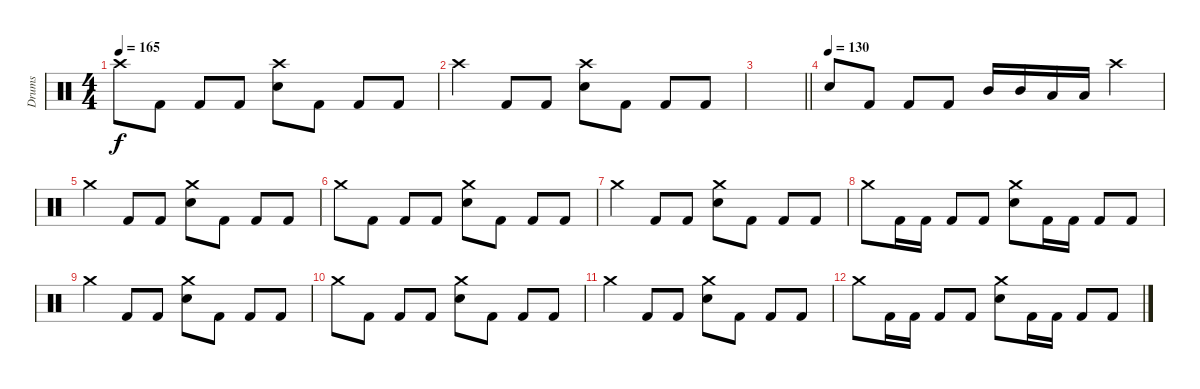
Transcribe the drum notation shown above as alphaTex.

\track ("Drums" "Drums") {instrument percussion}
\staff {score}
\articulation defaults
\ts (4 4)
\tempo 165
\clef neutral
\ks c "Crash high (hit)".8{dy f} "Kick (hit) 2".8 "Kick (hit) 2".8 "Kick (hit) 2".8
("Crash high (hit)" "Snare (hit) 2").8 "Kick (hit) 2".8 "Kick (hit) 2".8 "Kick (hit) 2".8 |
"Crash high (hit)".4 "Kick (hit) 2".8 "Kick (hit) 2".8 ("Crash high (hit)" "Snare (hit) 2").8 "Kick (hit) 2".8 "Kick (hit) 2".8 "Kick (hit) 2".8 |
\barLineRight lightlight
|
\tempo (130)
"Snare (hit) 2".8 "Kick (hit) 2".8 "Kick (hit) 2".8 "Kick (hit) 2".8 "Mid Tom (hit)".16 "Mid Tom (hit)".16 "Low Tom (hit)".16 "Low Tom (hit)".16 "Crash high (hit)".4 |
"Crash medium (hit)".4 "Kick (hit) 2".8 "Kick (hit) 2".8 ("Crash medium (hit)" "Snare (hit) 2").8 "Kick (hit) 2".8 "Kick (hit) 2".8 "Kick (hit) 2".8 |
"Crash medium (hit)".8 "Kick (hit) 2".8 "Kick (hit) 2".8 "Kick (hit) 2".8 ("Crash medium (hit)" "Snare (hit) 2").8 "Kick (hit) 2".8 "Kick (hit) 2".8 "Kick (hit) 2".8 |
"Crash medium (hit)".4 "Kick (hit) 2".8 "Kick (hit) 2".8 ("Crash medium (hit)" "Snare (hit) 2").8 "Kick (hit) 2".8 "Kick (hit) 2".8 "Kick (hit) 2".8 |
"Crash medium (hit)".8 "Kick (hit) 2".16 "Kick (hit) 2".16 "Kick (hit) 2".8 "Kick (hit) 2".8 ("Crash medium (hit)" "Snare (hit) 2").8 "Kick (hit) 2".16 "Kick (hit) 2".16 "Kick (hit) 2".8 "Kick (hit) 2".8 |
"Crash medium (hit)".4 "Kick (hit) 2".8 "Kick (hit) 2".8 ("Crash medium (hit)" "Snare (hit) 2").8 "Kick (hit) 2".8 "Kick (hit) 2".8 "Kick (hit) 2".8 |
"Crash medium (hit)".8 "Kick (hit) 2".8 "Kick (hit) 2".8 "Kick (hit) 2".8 ("Crash medium (hit)" "Snare (hit) 2").8 "Kick (hit) 2".8 "Kick (hit) 2".8 "Kick (hit) 2".8 |
"Crash medium (hit)".4 "Kick (hit) 2".8 "Kick (hit) 2".8 ("Crash medium (hit)" "Snare (hit) 2").8 "Kick (hit) 2".8 "Kick (hit) 2".8 "Kick (hit) 2".8 |
"Crash medium (hit)".8 "Kick (hit) 2".16 "Kick (hit) 2".16 "Kick (hit) 2".8 "Kick (hit) 2".8 ("Crash medium (hit)" "Snare (hit) 2").8 "Kick (hit) 2".16 "Kick (hit) 2".16 "Kick (hit) 2".8 "Kick (hit) 2".8
